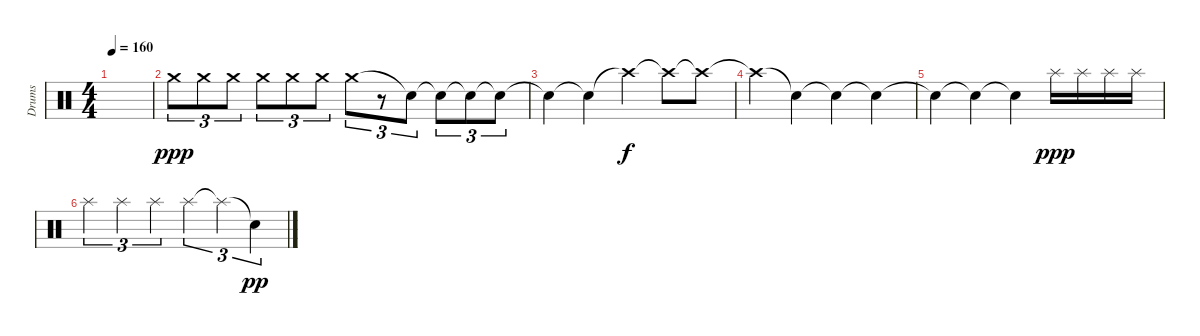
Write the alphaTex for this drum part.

\track ("Drums" "Drums") {instrument percussion}
\staff {score}
\articulation defaults
\ts (4 4)
\tempo 160
\clef neutral
\ks c
|
"Crash medium (hit)".8{tu (3 2) dy ppp} "Crash medium (hit)".8{tu (3 2)} "Crash medium (hit)".8{tu (3 2)} "Crash medium (hit)".8{tu (3 2)} "Crash medium (hit)".8{tu (3 2)} "Crash medium (hit)".8{tu (3 2)} "Crash medium (hit)".8{tu (3 2)} r.8{tu (3 2)} "Snare (hit)"{t}.8{tu (3 2)} "Snare (hit)"{t}.8{tu (3 2)} "Snare (hit)"{t}.8{tu (3 2)} "Snare (hit)"{t}.8{tu (3 2)} |
"Snare (hit)"{t}.4 "Snare (hit)"{t}.4 "Crash high (hit)"{t}.4{dy f} "Crash high (hit)"{t}.8 "Crash high (hit)"{t}.8 |
"Crash high (hit)"{t}.4 "Snare (hit)"{t}.4 "Snare (hit)"{t}.4 "Snare (hit)"{t}.4 |
"Snare (hit)"{t}.4 "Snare (hit)"{t}.4 "Snare (hit)"{t}.4 "Splash (hit)".16{dy ppp} "Splash (hit)".16 "Splash (hit)".16 "Splash (hit)".16 |
"Splash (hit)".4{tu (3 2)} "Splash (hit)".4{tu (3 2)} "Splash (hit)".4{tu (3 2)} "Splash (hit)".4{tu (3 2)} "Splash (hit)"{t}.4{tu (3 2)} "Snare (hit)"{t}.4{tu (3 2) dy pp}
